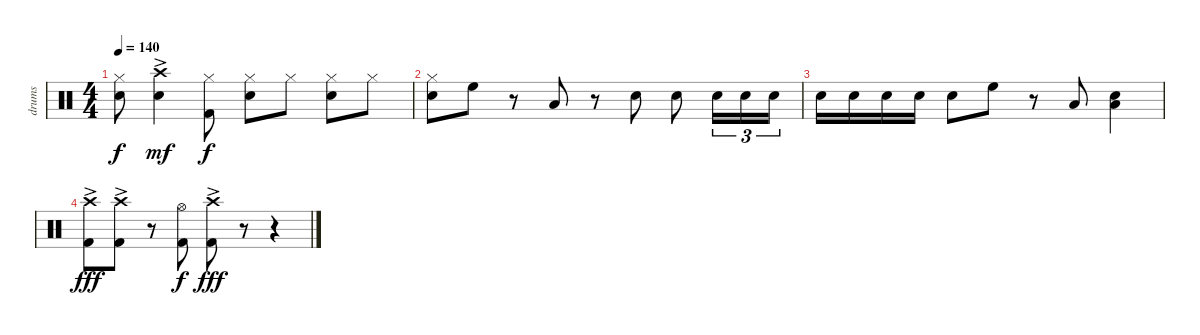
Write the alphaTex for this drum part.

\track ("drums" "drums") {instrument percussion}
\staff {score}
\articulation defaults
\ts (4 4)
\tempo 140
\clef neutral
\ks c
("Snare (hit) 2" "Hi-Hat (closed)").8{dy f} ("Crash high (hit)"{ac} "Snare (hit) 2").4{dy mf} ("Hi-Hat (closed)" "Kick (hit) 2").8{dy f} ("Hi-Hat (closed)" "Snare (hit) 2").8 "Hi-Hat (closed)".8 ("Hi-Hat (closed)" "Snare (hit) 2").8 "Hi-Hat (closed)".8 |
("Hi-Hat (closed)" "Snare (hit) 2").8 "High Floor Tom (hit)".8 r.8 "Low Tom (hit)".8 r.8 "Snare (hit) 2".8 "Snare (hit) 2".8 "Snare (hit) 2".16{tu (3 2)} "Snare (hit) 2".16{tu (3 2)} "Snare (hit) 2".16{tu (3 2)} |
"Snare (hit) 2".16 "Snare (hit) 2".16 "Snare (hit) 2".16 "Snare (hit) 2".16 "Snare (hit) 2".8 "High Floor Tom (hit)".8 r.8 "Low Tom (hit)".8 ("Snare (hit) 2" "Low Tom (hit)").4 |
("Crash high (hit)"{ac} "Kick (hit) 2").8{dy fff} ("Crash high (hit)"{ac} "Kick (hit) 2").8 r.8 ("Kick (hit) 2" "Hi-Hat (open)").8{dy f} ("Kick (hit) 2" "Crash high (hit)"{ac}).8{dy fff} r.8 r.4
